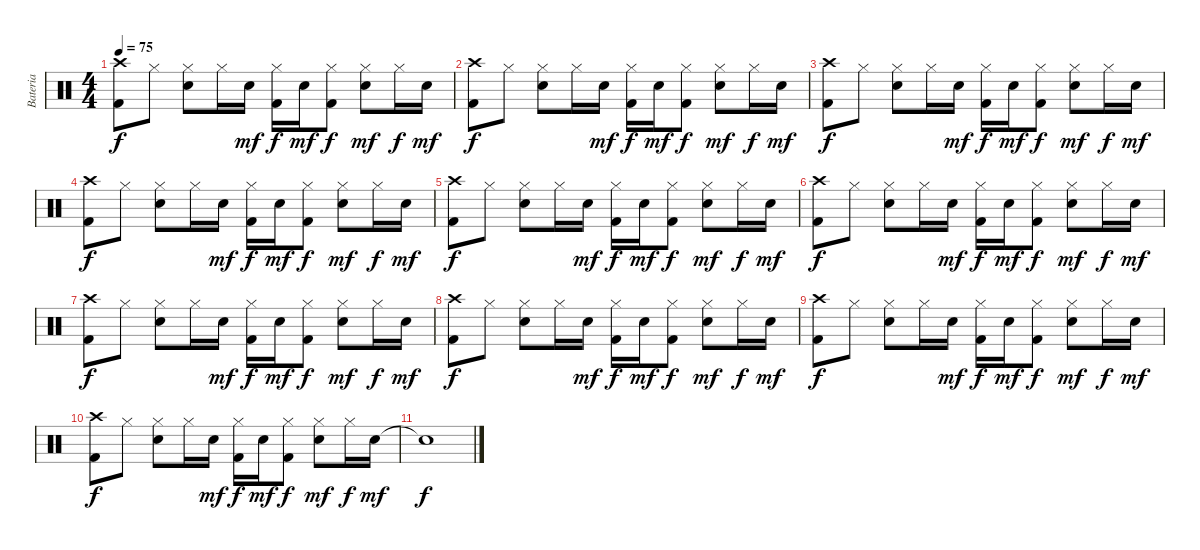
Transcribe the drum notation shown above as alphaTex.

\track ("Bateria" "Bateria") {instrument percussion}
\staff {score}
\articulation defaults
\ts (4 4)
\tempo 75
\clef neutral
\ks c
("Crash high (hit)" "Kick (hit) 2").8{dy f} "Hi-Hat (closed)".8 ("Hi-Hat (closed)" "Snare (hit) 2").8 "Hi-Hat (closed)".16 "Snare (hit) 2".16{dy mf} ("Hi-Hat (closed)" "Kick (hit) 2").16{dy f} "Snare (hit) 2".16{dy mf} ("Hi-Hat (closed)" "Kick (hit) 2").8{dy f} ("Hi-Hat (closed)" "Snare (hit) 2").8{dy mf} "Hi-Hat (closed)".16{dy f} "Snare (hit) 2".16{dy mf} |
("Crash high (hit)" "Kick (hit) 2").8{dy f} "Hi-Hat (closed)".8 ("Hi-Hat (closed)" "Snare (hit) 2").8 "Hi-Hat (closed)".16 "Snare (hit) 2".16{dy mf} ("Hi-Hat (closed)" "Kick (hit) 2").16{dy f} "Snare (hit) 2".16{dy mf} ("Hi-Hat (closed)" "Kick (hit) 2").8{dy f} ("Hi-Hat (closed)" "Snare (hit) 2").8{dy mf} "Hi-Hat (closed)".16{dy f} "Snare (hit) 2".16{dy mf} |
("Crash high (hit)" "Kick (hit) 2").8{dy f} "Hi-Hat (closed)".8 ("Hi-Hat (closed)" "Snare (hit) 2").8 "Hi-Hat (closed)".16 "Snare (hit) 2".16{dy mf} ("Hi-Hat (closed)" "Kick (hit) 2").16{dy f} "Snare (hit) 2".16{dy mf} ("Hi-Hat (closed)" "Kick (hit) 2").8{dy f} ("Hi-Hat (closed)" "Snare (hit) 2").8{dy mf} "Hi-Hat (closed)".16{dy f} "Snare (hit) 2".16{dy mf} |
("Crash high (hit)" "Kick (hit) 2").8{dy f} "Hi-Hat (closed)".8 ("Hi-Hat (closed)" "Snare (hit) 2").8 "Hi-Hat (closed)".16 "Snare (hit) 2".16{dy mf} ("Hi-Hat (closed)" "Kick (hit) 2").16{dy f} "Snare (hit) 2".16{dy mf} ("Hi-Hat (closed)" "Kick (hit) 2").8{dy f} ("Hi-Hat (closed)" "Snare (hit) 2").8{dy mf} "Hi-Hat (closed)".16{dy f} "Snare (hit) 2".16{dy mf} |
("Crash high (hit)" "Kick (hit) 2").8{dy f volume 9} "Hi-Hat (closed)".8 ("Hi-Hat (closed)" "Snare (hit) 2").8 "Hi-Hat (closed)".16 "Snare (hit) 2".16{dy mf} ("Hi-Hat (closed)" "Kick (hit) 2").16{dy f} "Snare (hit) 2".16{dy mf} ("Hi-Hat (closed)" "Kick (hit) 2").8{dy f} ("Hi-Hat (closed)" "Snare (hit) 2").8{dy mf} "Hi-Hat (closed)".16{dy f} "Snare (hit) 2".16{dy mf} |
("Crash high (hit)" "Kick (hit) 2").8{dy f volume 7} "Hi-Hat (closed)".8 ("Hi-Hat (closed)" "Snare (hit) 2").8 "Hi-Hat (closed)".16 "Snare (hit) 2".16{dy mf} ("Hi-Hat (closed)" "Kick (hit) 2").16{dy f} "Snare (hit) 2".16{dy mf} ("Hi-Hat (closed)" "Kick (hit) 2").8{dy f} ("Hi-Hat (closed)" "Snare (hit) 2").8{dy mf} "Hi-Hat (closed)".16{dy f} "Snare (hit) 2".16{dy mf} |
("Crash high (hit)" "Kick (hit) 2").8{dy f volume 4} "Hi-Hat (closed)".8 ("Hi-Hat (closed)" "Snare (hit) 2").8 "Hi-Hat (closed)".16 "Snare (hit) 2".16{dy mf} ("Hi-Hat (closed)" "Kick (hit) 2").16{dy f} "Snare (hit) 2".16{dy mf} ("Hi-Hat (closed)" "Kick (hit) 2").8{dy f} ("Hi-Hat (closed)" "Snare (hit) 2").8{dy mf} "Hi-Hat (closed)".16{dy f} "Snare (hit) 2".16{dy mf} |
("Crash high (hit)" "Kick (hit) 2").8{dy f volume 3} "Hi-Hat (closed)".8 ("Hi-Hat (closed)" "Snare (hit) 2").8 "Hi-Hat (closed)".16 "Snare (hit) 2".16{dy mf} ("Hi-Hat (closed)" "Kick (hit) 2").16{dy f} "Snare (hit) 2".16{dy mf} ("Hi-Hat (closed)" "Kick (hit) 2").8{dy f} ("Hi-Hat (closed)" "Snare (hit) 2").8{dy mf} "Hi-Hat (closed)".16{dy f} "Snare (hit) 2".16{dy mf} |
("Crash high (hit)" "Kick (hit) 2").8{dy f volume 2} "Hi-Hat (closed)".8 ("Hi-Hat (closed)" "Snare (hit) 2").8 "Hi-Hat (closed)".16 "Snare (hit) 2".16{dy mf} ("Hi-Hat (closed)" "Kick (hit) 2").16{dy f} "Snare (hit) 2".16{dy mf} ("Hi-Hat (closed)" "Kick (hit) 2").8{dy f} ("Hi-Hat (closed)" "Snare (hit) 2").8{dy mf} "Hi-Hat (closed)".16{dy f} "Snare (hit) 2".16{dy mf} |
("Crash high (hit)" "Kick (hit) 2").8{dy f volume 1} "Hi-Hat (closed)".8 ("Hi-Hat (closed)" "Snare (hit) 2").8 "Hi-Hat (closed)".16 "Snare (hit) 2".16{dy mf} ("Hi-Hat (closed)" "Kick (hit) 2").16{dy f} "Snare (hit) 2".16{dy mf} ("Hi-Hat (closed)" "Kick (hit) 2").8{dy f} ("Hi-Hat (closed)" "Snare (hit) 2").8{dy mf} "Hi-Hat (closed)".16{dy f} "Snare (hit) 2".16{dy mf} |
"Snare (hit)"{t}.1{dy f}
